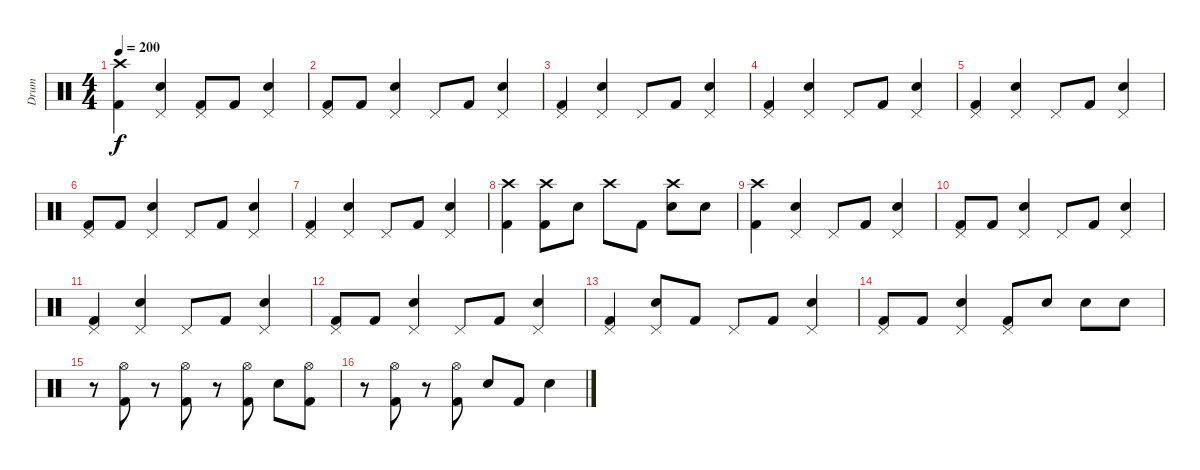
\track ("Drum" "Drum") {instrument percussion}
\staff {score}
\articulation defaults
\ts (4 4)
\tempo 200
\clef neutral
\ks c
("Crash high (hit)" "Kick (hit) 2").4{dy f} ("Pedal Hi-Hat (hit)" "Electric Snare (hit)").4 ("Pedal Hi-Hat (hit)" "Kick (hit) 2").8 "Kick (hit) 2".8 ("Pedal Hi-Hat (hit)" "Electric Snare (hit)").4 |
("Pedal Hi-Hat (hit)" "Kick (hit) 2").8 "Kick (hit) 2".8 ("Pedal Hi-Hat (hit)" "Electric Snare (hit)").4 "Pedal Hi-Hat (hit)".8 "Kick (hit) 2".8 ("Pedal Hi-Hat (hit)" "Electric Snare (hit)").4 |
("Pedal Hi-Hat (hit)" "Kick (hit) 2").4 ("Pedal Hi-Hat (hit)" "Electric Snare (hit)").4 "Pedal Hi-Hat (hit)".8 "Kick (hit) 2".8 ("Pedal Hi-Hat (hit)" "Electric Snare (hit)").4 |
("Pedal Hi-Hat (hit)" "Kick (hit) 2").4 ("Pedal Hi-Hat (hit)" "Electric Snare (hit)").4 "Pedal Hi-Hat (hit)".8 "Kick (hit) 2".8 ("Pedal Hi-Hat (hit)" "Electric Snare (hit)").4 |
("Pedal Hi-Hat (hit)" "Kick (hit) 2").4 ("Pedal Hi-Hat (hit)" "Electric Snare (hit)").4 "Pedal Hi-Hat (hit)".8 "Kick (hit) 2".8 ("Pedal Hi-Hat (hit)" "Electric Snare (hit)").4 |
("Pedal Hi-Hat (hit)" "Kick (hit) 2").8 "Kick (hit) 2".8 ("Pedal Hi-Hat (hit)" "Electric Snare (hit)").4 "Pedal Hi-Hat (hit)".8 "Kick (hit) 2".8 ("Pedal Hi-Hat (hit)" "Electric Snare (hit)").4 |
("Pedal Hi-Hat (hit)" "Kick (hit) 2").4 ("Pedal Hi-Hat (hit)" "Electric Snare (hit)").4 "Pedal Hi-Hat (hit)".8 "Kick (hit) 2".8 ("Pedal Hi-Hat (hit)" "Electric Snare (hit)").4 |
("Crash high (hit)" "Kick (hit) 2").4 ("Crash high (hit)" "Kick (hit) 2").8 "Electric Snare (hit)".8 "Crash high (hit)".8 "Kick (hit) 2".8 ("Crash high (hit)" "Electric Snare (hit)").8 "Electric Snare (hit)".8 |
("Crash high (hit)" "Kick (hit) 2").4 ("Pedal Hi-Hat (hit)" "Electric Snare (hit)").4 "Pedal Hi-Hat (hit)".8 "Kick (hit) 2".8 ("Pedal Hi-Hat (hit)" "Electric Snare (hit)").4 |
("Pedal Hi-Hat (hit)" "Kick (hit) 2").8 "Kick (hit) 2".8 ("Pedal Hi-Hat (hit)" "Electric Snare (hit)").4 "Pedal Hi-Hat (hit)".8 "Kick (hit) 2".8 ("Pedal Hi-Hat (hit)" "Electric Snare (hit)").4 |
("Pedal Hi-Hat (hit)" "Kick (hit) 2").4 ("Pedal Hi-Hat (hit)" "Electric Snare (hit)").4 "Pedal Hi-Hat (hit)".8 "Kick (hit) 2".8 ("Pedal Hi-Hat (hit)" "Electric Snare (hit)").4 |
("Pedal Hi-Hat (hit)" "Kick (hit) 2").8 "Kick (hit) 2".8 ("Pedal Hi-Hat (hit)" "Electric Snare (hit)").4 "Pedal Hi-Hat (hit)".8 "Kick (hit) 2".8 ("Pedal Hi-Hat (hit)" "Electric Snare (hit)").4 |
("Pedal Hi-Hat (hit)" "Kick (hit) 2").4 ("Pedal Hi-Hat (hit)" "Electric Snare (hit)").8 "Kick (hit) 2".8 "Pedal Hi-Hat (hit)".8 "Kick (hit) 2".8 ("Pedal Hi-Hat (hit)" "Electric Snare (hit)").4 |
("Pedal Hi-Hat (hit)" "Kick (hit) 2").8 "Kick (hit) 2".8 ("Pedal Hi-Hat (hit)" "Electric Snare (hit)").4 ("Pedal Hi-Hat (hit)" "Kick (hit) 2").8 "Electric Snare (hit)".8 "Electric Snare (hit)".8 "Electric Snare (hit)".8 |
r.8 ("Hi-Hat (open)" "Kick (hit) 2").8 r.8 ("Hi-Hat (open)" "Kick (hit) 2").8 r.8 ("Hi-Hat (open)" "Kick (hit) 2").8 "Electric Snare (hit)".8 ("Hi-Hat (open)" "Kick (hit) 2").8 |
r.8 ("Hi-Hat (open)" "Kick (hit) 2").8 r.8 ("Hi-Hat (open)" "Kick (hit) 2").8 "Electric Snare (hit)".8 "Kick (hit) 2".8 "Electric Snare (hit)".4
